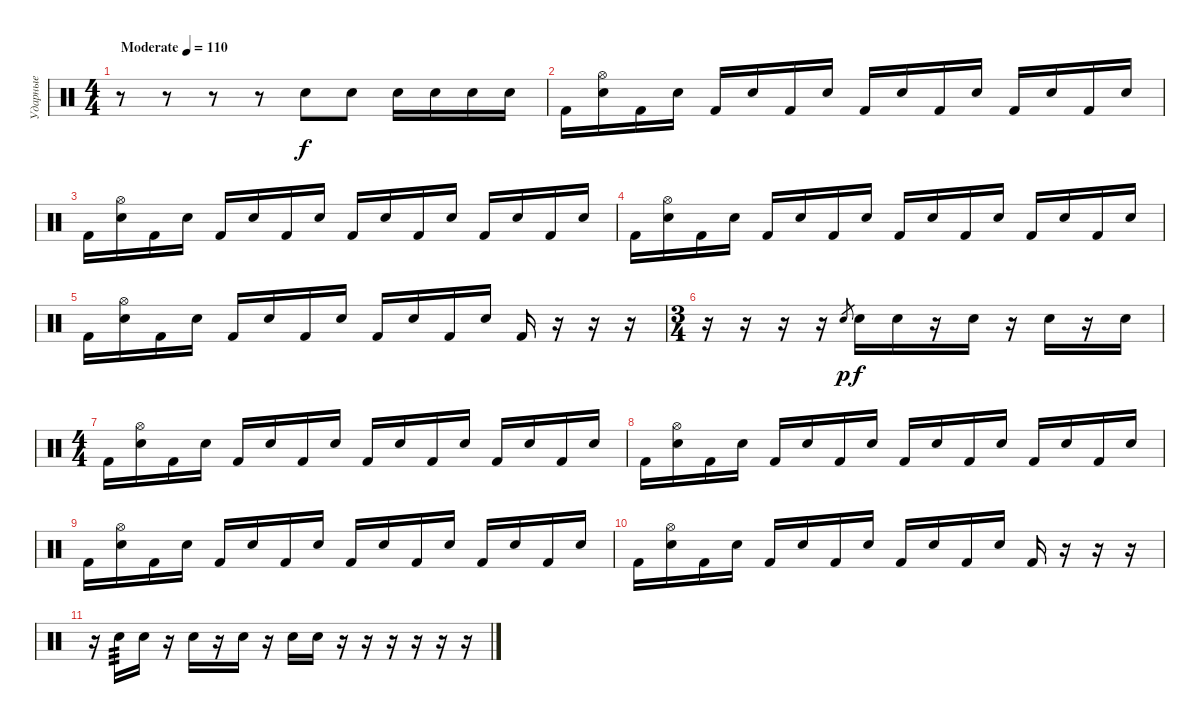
\track ("Ударные" "Ударные") {instrument percussion}
\staff {score}
\articulation defaults
\ts (4 4)
\tempo (110 "Moderate")
\clef neutral
\ks c
r.8{dy f} r.8 r.8 r.8 "Snare (hit) 2".8 "Snare (hit) 2".8 "Snare (hit) 2".16 "Snare (hit) 2".16 "Snare (hit) 2".16 "Snare (hit) 2".16 |
"Kick (hit) 2".16 ("Snare (hit) 2" "Hi-Hat (open)").16 "Kick (hit) 2".16 "Snare (hit) 2".16 "Kick (hit) 2".16 "Snare (hit) 2".16 "Kick (hit) 2".16 "Snare (hit) 2".16 "Kick (hit) 2".16 "Snare (hit) 2".16 "Kick (hit) 2".16 "Snare (hit) 2".16 "Kick (hit) 2".16 "Snare (hit) 2".16 "Kick (hit) 2".16 "Snare (hit) 2".16 |
"Kick (hit) 2".16 ("Snare (hit) 2" "Hi-Hat (open)").16 "Kick (hit) 2".16 "Snare (hit) 2".16 "Kick (hit) 2".16 "Snare (hit) 2".16 "Kick (hit) 2".16 "Snare (hit) 2".16 "Kick (hit) 2".16 "Snare (hit) 2".16 "Kick (hit) 2".16 "Snare (hit) 2".16 "Kick (hit) 2".16 "Snare (hit) 2".16 "Kick (hit) 2".16 "Snare (hit) 2".16 |
"Kick (hit) 2".16 ("Snare (hit) 2" "Hi-Hat (open)").16 "Kick (hit) 2".16 "Snare (hit) 2".16 "Kick (hit) 2".16 "Snare (hit) 2".16 "Kick (hit) 2".16 "Snare (hit) 2".16 "Kick (hit) 2".16 "Snare (hit) 2".16 "Kick (hit) 2".16 "Snare (hit) 2".16 "Kick (hit) 2".16 "Snare (hit) 2".16 "Kick (hit) 2".16 "Snare (hit) 2".16 |
"Kick (hit) 2".16 ("Snare (hit) 2" "Hi-Hat (open)").16 "Kick (hit) 2".16 "Snare (hit) 2".16 "Kick (hit) 2".16 "Snare (hit) 2".16 "Kick (hit) 2".16 "Snare (hit) 2".16 "Kick (hit) 2".16 "Snare (hit) 2".16 "Kick (hit) 2".16 "Snare (hit) 2".16 "Kick (hit) 2".16 r.16 r.16 r.16 |
\ts (3 4)
r.16 r.16 r.16 r.16 "Snare (hit) 2".8{gr dy p} "Snare (hit) 2".16{dy f} "Snare (hit) 2".16 r.16 "Snare (hit) 2".16 r.16 "Snare (hit) 2".16 r.16 "Snare (hit) 2".16 |
\ts (4 4)
"Kick (hit) 2".16 ("Snare (hit) 2" "Hi-Hat (open)").16 "Kick (hit) 2".16 "Snare (hit) 2".16 "Kick (hit) 2".16 "Snare (hit) 2".16 "Kick (hit) 2".16 "Snare (hit) 2".16 "Kick (hit) 2".16 "Snare (hit) 2".16 "Kick (hit) 2".16 "Snare (hit) 2".16 "Kick (hit) 2".16 "Snare (hit) 2".16 "Kick (hit) 2".16 "Snare (hit) 2".16 |
"Kick (hit) 2".16 ("Snare (hit) 2" "Hi-Hat (open)").16 "Kick (hit) 2".16 "Snare (hit) 2".16 "Kick (hit) 2".16 "Snare (hit) 2".16 "Kick (hit) 2".16 "Snare (hit) 2".16 "Kick (hit) 2".16 "Snare (hit) 2".16 "Kick (hit) 2".16 "Snare (hit) 2".16 "Kick (hit) 2".16 "Snare (hit) 2".16 "Kick (hit) 2".16 "Snare (hit) 2".16 |
"Kick (hit) 2".16 ("Snare (hit) 2" "Hi-Hat (open)").16 "Kick (hit) 2".16 "Snare (hit) 2".16 "Kick (hit) 2".16 "Snare (hit) 2".16 "Kick (hit) 2".16 "Snare (hit) 2".16 "Kick (hit) 2".16 "Snare (hit) 2".16 "Kick (hit) 2".16 "Snare (hit) 2".16 "Kick (hit) 2".16 "Snare (hit) 2".16 "Kick (hit) 2".16 "Snare (hit) 2".16 |
"Kick (hit) 2".16 ("Snare (hit) 2" "Hi-Hat (open)").16 "Kick (hit) 2".16 "Snare (hit) 2".16 "Kick (hit) 2".16 "Snare (hit) 2".16 "Kick (hit) 2".16 "Snare (hit) 2".16 "Kick (hit) 2".16 "Snare (hit) 2".16 "Kick (hit) 2".16 "Snare (hit) 2".16 "Kick (hit) 2".16 r.16 r.16 r.16 |
r.16 "Snare (hit) 2".16{tp 3} "Snare (hit) 2".16 r.16 "Snare (hit) 2".16 r.16 "Snare (hit) 2".16 r.16 "Snare (hit) 2".16 "Snare (hit) 2".16 r.16 r.16 r.16 r.16 r.16 r.16
